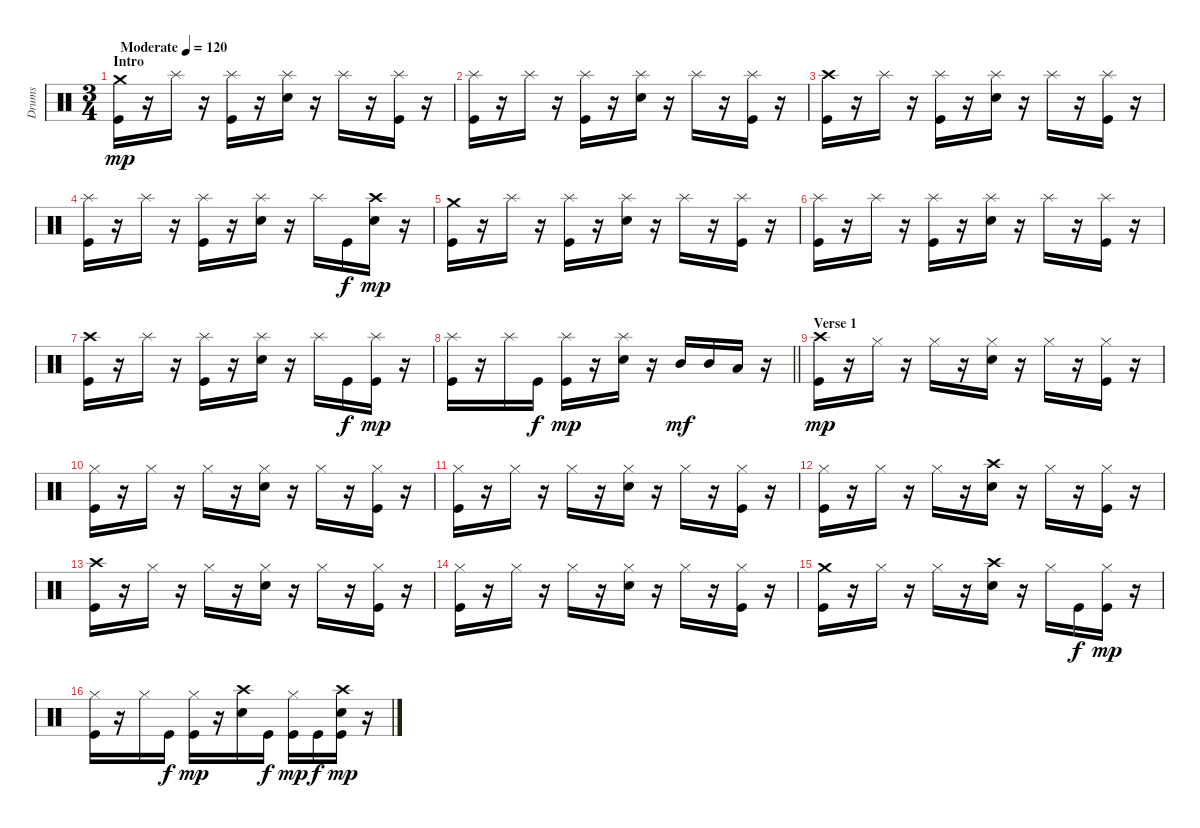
\track ("Drums" "Drums") {instrument percussion}
\staff {score}
\articulation defaults
\ts (3 4)
\section ("" "Intro")
\tempo (120 "Moderate")
\tempo 75
\tempo (120 "Moderate")
\clef neutral
\ks c
("Kick (hit)" "Crash medium (hit)").16{dy mp} r.16 "Splash (hit)".16 r.16 ("Kick (hit)" "Splash (hit)").16 r.16 ("Splash (hit)" "Snare (hit) 2").16 r.16 "Splash (hit)".16 r.16 ("Kick (hit)" "Splash (hit)").16 r.16 |
("Kick (hit)" "Splash (hit)").16 r.16 "Splash (hit)".16 r.16 ("Kick (hit)" "Splash (hit)").16 r.16 ("Splash (hit)" "Snare (hit) 2").16 r.16 "Splash (hit)".16 r.16 ("Kick (hit)" "Splash (hit)").16 r.16 |
("Kick (hit)" "Crash high (hit)").16 r.16 "Splash (hit)".16 r.16 ("Kick (hit)" "Splash (hit)").16 r.16 ("Splash (hit)" "Snare (hit) 2").16 r.16 "Splash (hit)".16 r.16 ("Kick (hit)" "Splash (hit)").16 r.16 |
("Kick (hit)" "Splash (hit)").16 r.16 "Splash (hit)".16 r.16 ("Kick (hit)" "Splash (hit)").16 r.16 ("Splash (hit)" "Snare (hit) 2").16 r.16 "Splash (hit)".16 "Kick (hit)".16{dy f} ("Crash high (hit)" "Snare (hit) 2").16{dy mp} r.16 |
("Kick (hit)" "Crash medium (hit)").16 r.16 "Splash (hit)".16 r.16 ("Kick (hit)" "Splash (hit)").16 r.16 ("Splash (hit)" "Snare (hit) 2").16 r.16 "Splash (hit)".16 r.16 ("Kick (hit)" "Splash (hit)").16 r.16 |
("Kick (hit)" "Splash (hit)").16 r.16 "Splash (hit)".16 r.16 ("Kick (hit)" "Splash (hit)").16 r.16 ("Splash (hit)" "Snare (hit) 2").16 r.16 "Splash (hit)".16 r.16 ("Kick (hit)" "Splash (hit)").16 r.16 |
("Kick (hit)" "Crash high (hit)").16 r.16 "Splash (hit)".16 r.16 ("Kick (hit)" "Splash (hit)").16 r.16 ("Splash (hit)" "Snare (hit) 2").16 r.16 "Splash (hit)".16 "Kick (hit)".16{dy f} ("Kick (hit)" "Splash (hit)").16{dy mp} r.16 |
\barLineRight lightlight
("Kick (hit)" "Splash (hit)").16 r.16 "Splash (hit)".16 "Kick (hit)".16{dy f} ("Kick (hit)" "Splash (hit)").16{dy mp} r.16 ("Splash (hit)" "Snare (hit) 2").16 r.16 "Mid Tom (hit)".16{dy mf} "Mid Tom (hit)".16 "Low Tom (hit)".16 r.16 |
\section ("" "Verse 1")
("Kick (hit)" "Crash high (hit)").16{dy mp} r.16 "Hi-Hat (closed)".16 r.16 "Hi-Hat (closed)".16 r.16 ("Hi-Hat (closed)" "Snare (hit) 2").16 r.16 "Hi-Hat (closed)".16 r.16 ("Kick (hit)" "Hi-Hat (closed)").16 r.16 |
("Kick (hit)" "Hi-Hat (closed)").16 r.16 "Hi-Hat (closed)".16 r.16 "Hi-Hat (closed)".16 r.16 ("Hi-Hat (closed)" "Snare (hit) 2").16 r.16 "Hi-Hat (closed)".16 r.16 ("Kick (hit)" "Hi-Hat (closed)").16 r.16 |
("Kick (hit)" "Hi-Hat (closed)").16 r.16 "Hi-Hat (closed)".16 r.16 "Hi-Hat (closed)".16 r.16 ("Hi-Hat (closed)" "Snare (hit) 2").16 r.16 "Hi-Hat (closed)".16 r.16 ("Kick (hit)" "Hi-Hat (closed)").16 r.16 |
("Kick (hit)" "Hi-Hat (closed)").16 r.16 "Hi-Hat (closed)".16 r.16 "Hi-Hat (closed)".16 r.16 ("Crash high (hit)" "Snare (hit) 2").16 r.16 "Hi-Hat (closed)".16 r.16 ("Kick (hit)" "Hi-Hat (closed)").16 r.16 |
("Kick (hit)" "Crash high (hit)").16 r.16 "Hi-Hat (closed)".16 r.16 "Hi-Hat (closed)".16 r.16 ("Hi-Hat (closed)" "Snare (hit) 2").16 r.16 "Hi-Hat (closed)".16 r.16 ("Kick (hit)" "Hi-Hat (closed)").16 r.16 |
("Kick (hit)" "Hi-Hat (closed)").16 r.16 "Hi-Hat (closed)".16 r.16 "Hi-Hat (closed)".16 r.16 ("Hi-Hat (closed)" "Snare (hit) 2").16 r.16 "Hi-Hat (closed)".16 r.16 ("Kick (hit)" "Hi-Hat (closed)").16 r.16 |
("Kick (hit)" "Crash medium (hit)").16 r.16 "Hi-Hat (closed)".16 r.16 "Hi-Hat (closed)".16 r.16 ("Crash high (hit)" "Snare (hit) 2").16 r.16 "Hi-Hat (closed)".16 "Kick (hit)".16{dy f} ("Kick (hit)" "Hi-Hat (closed)").16{dy mp} r.16 |
("Kick (hit)" "Hi-Hat (closed)").16 r.16 "Hi-Hat (closed)".16 "Kick (hit)".16{dy f} ("Kick (hit)" "Hi-Hat (closed)").16{dy mp} r.16 ("Crash high (hit)" "Snare (hit) 2").16 "Kick (hit)".16{dy f} ("Kick (hit)" "Hi-Hat (closed)").16{dy mp} "Kick (hit)".16{dy f} ("Kick (hit)" "Crash high (hit)" "Snare (hit) 2").16{dy mp} r.16
